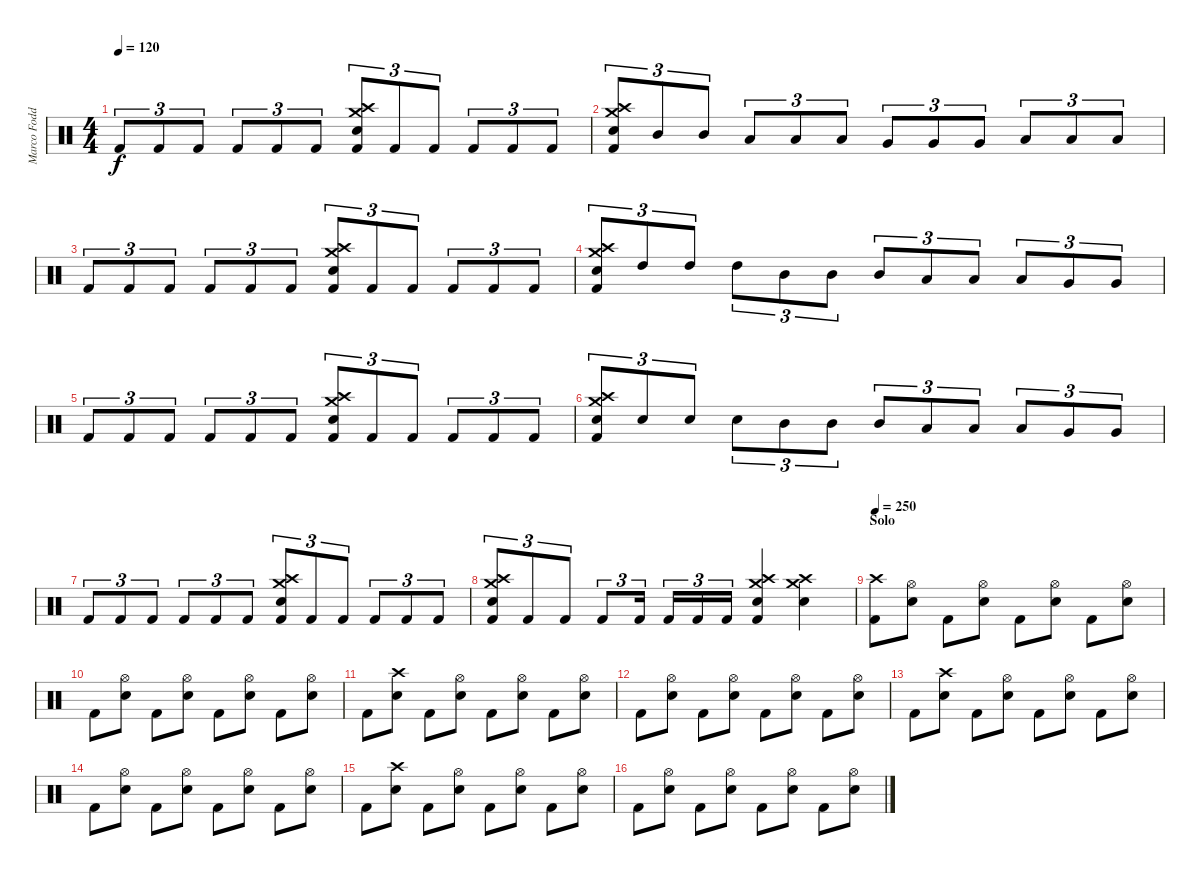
\track ("Marco Foddis " "Marco Fodd") {instrument percussion}
\staff {score}
\articulation defaults
\ts (4 4)
\tempo 120
\clef neutral
\ks c "Kick (hit) 2".8{tu (3 2) dy f} "Kick (hit) 2".8{tu (3 2)} "Kick (hit) 2".8{tu (3 2)} "Kick (hit) 2".8{tu (3 2)} "Kick (hit) 2".8{tu (3 2)} "Kick (hit) 2".8{tu (3 2)}
("Crash high (hit)" "Crash medium (hit)" "Electric Snare (hit)" "Kick (hit) 2").8{tu (3 2)} "Kick (hit) 2".8{tu (3 2)} "Kick (hit) 2".8{tu (3 2)} "Kick (hit) 2".8{tu (3 2)} "Kick (hit) 2".8{tu (3 2)} "Kick (hit) 2".8{tu (3 2)} |
("Crash high (hit)" "Crash medium (hit)" "Electric Snare (hit)" "Kick (hit) 2").8{tu (3 2)} "Mid Tom (hit)".8{tu (3 2)} "Mid Tom (hit)".8{tu (3 2)} "Low Tom (hit)".8{tu (3 2)} "Low Tom (hit)".8{tu (3 2)} "Low Tom (hit)".8{tu (3 2)} "Very Low Tom (hit)".8{tu (3 2)} "Very Low Tom (hit)".8{tu (3 2)} "Very Low Tom (hit)".8{tu (3 2)} "Low Floor Tom (hit)".8{tu (3 2)} "Low Floor Tom (hit)".8{tu (3 2)} "Low Floor Tom (hit)".8{tu (3 2)} |
"Kick (hit) 2".8{tu (3 2)} "Kick (hit) 2".8{tu (3 2)} "Kick (hit) 2".8{tu (3 2)} "Kick (hit) 2".8{tu (3 2)} "Kick (hit) 2".8{tu (3 2)} "Kick (hit) 2".8{tu (3 2)} ("Crash high (hit)" "Crash medium (hit)" "Electric Snare (hit)" "Kick (hit) 2").8{tu (3 2)} "Kick (hit) 2".8{tu (3 2)} "Kick (hit) 2".8{tu (3 2)} "Kick (hit) 2".8{tu (3 2)} "Kick (hit) 2".8{tu (3 2)} "Kick (hit) 2".8{tu (3 2)} |
("Crash high (hit)" "Crash medium (hit)" "Electric Snare (hit)" "Kick (hit) 2").8{tu (3 2)} "High Tom (hit)".8{tu (3 2)} "High Tom (hit)".8{tu (3 2)} "High Tom (hit)".8{tu (3 2)} "Mid Tom (hit)".8{tu (3 2)} "Mid Tom (hit)".8{tu (3 2)} "Mid Tom (hit)".8{tu (3 2)} "Low Tom (hit)".8{tu (3 2)} "Low Tom (hit)".8{tu (3 2)} "Low Tom (hit)".8{tu (3 2)} "Very Low Tom (hit)".8{tu (3 2)} "Very Low Tom (hit)".8{tu (3 2)} |
"Kick (hit) 2".8{tu (3 2)} "Kick (hit) 2".8{tu (3 2)} "Kick (hit) 2".8{tu (3 2)} "Kick (hit) 2".8{tu (3 2)} "Kick (hit) 2".8{tu (3 2)} "Kick (hit) 2".8{tu (3 2)} ("Crash high (hit)" "Crash medium (hit)" "Electric Snare (hit)" "Kick (hit) 2").8{tu (3 2)} "Kick (hit) 2".8{tu (3 2)} "Kick (hit) 2".8{tu (3 2)} "Kick (hit) 2".8{tu (3 2)} "Kick (hit) 2".8{tu (3 2)} "Kick (hit) 2".8{tu (3 2)} |
("Crash high (hit)" "Crash medium (hit)" "Electric Snare (hit)" "Kick (hit) 2").8{tu (3 2)} "Electric Snare (hit)".8{tu (3 2)} "Electric Snare (hit)".8{tu (3 2)} "Electric Snare (hit)".8{tu (3 2)} "Mid Tom (hit)".8{tu (3 2)} "Mid Tom (hit)".8{tu (3 2)} "Mid Tom (hit)".8{tu (3 2)} "Low Tom (hit)".8{tu (3 2)} "Low Tom (hit)".8{tu (3 2)} "Low Tom (hit)".8{tu (3 2)} "Very Low Tom (hit)".8{tu (3 2)} "Very Low Tom (hit)".8{tu (3 2)} |
"Kick (hit) 2".8{tu (3 2)} "Kick (hit) 2".8{tu (3 2)} "Kick (hit) 2".8{tu (3 2)} "Kick (hit) 2".8{tu (3 2)} "Kick (hit) 2".8{tu (3 2)} "Kick (hit) 2".8{tu (3 2)} ("Crash high (hit)" "Crash medium (hit)" "Electric Snare (hit)" "Kick (hit) 2").8{tu (3 2)} "Kick (hit) 2".8{tu (3 2)} "Kick (hit) 2".8{tu (3 2)} "Kick (hit) 2".8{tu (3 2)} "Kick (hit) 2".8{tu (3 2)} "Kick (hit) 2".8{tu (3 2)} |
("Crash high (hit)" "Crash medium (hit)" "Electric Snare (hit)" "Kick (hit) 2").8{tu (3 2)} "Kick (hit) 2".8{tu (3 2)} "Kick (hit) 2".8{tu (3 2)} "Kick (hit) 2".8{tu (3 2)} "Kick (hit) 2".16{tu (3 2)} "Kick (hit) 2".16{tu (3 2)} "Kick (hit) 2".16{tu (3 2)} "Kick (hit) 2".16{tu (3 2)} ("Crash high (hit)" "Crash medium (hit)" "Electric Snare (hit)" "Kick (hit) 2").4 ("Crash high (hit)" "Crash medium (hit)" "Electric Snare (hit)").4 |
\section ("" "Solo")
\tempo 250
("Crash high (hit)" "Kick (hit) 2").8 ("Hi-Hat (open)" "Electric Snare (hit)").8 "Kick (hit) 2".8 ("Hi-Hat (open)" "Electric Snare (hit)").8 "Kick (hit) 2".8 ("Hi-Hat (open)" "Electric Snare (hit)").8 "Kick (hit) 2".8 ("Hi-Hat (open)" "Electric Snare (hit)").8 |
"Kick (hit) 2".8 ("Hi-Hat (open)" "Electric Snare (hit)").8 "Kick (hit) 2".8 ("Hi-Hat (open)" "Electric Snare (hit)").8 "Kick (hit) 2".8 ("Hi-Hat (open)" "Electric Snare (hit)").8 "Kick (hit) 2".8 ("Hi-Hat (open)" "Electric Snare (hit)").8 |
"Kick (hit) 2".8 ("Crash high (hit)" "Electric Snare (hit)").8 "Kick (hit) 2".8 ("Hi-Hat (open)" "Electric Snare (hit)").8 "Kick (hit) 2".8 ("Hi-Hat (open)" "Electric Snare (hit)").8 "Kick (hit) 2".8 ("Hi-Hat (open)" "Electric Snare (hit)").8 |
"Kick (hit) 2".8 ("Hi-Hat (open)" "Electric Snare (hit)").8 "Kick (hit) 2".8 ("Hi-Hat (open)" "Electric Snare (hit)").8 "Kick (hit) 2".8 ("Hi-Hat (open)" "Electric Snare (hit)").8 "Kick (hit) 2".8 ("Hi-Hat (open)" "Electric Snare (hit)").8 |
"Kick (hit) 2".8 ("Crash high (hit)" "Electric Snare (hit)").8 "Kick (hit) 2".8 ("Hi-Hat (open)" "Electric Snare (hit)").8 "Kick (hit) 2".8 ("Hi-Hat (open)" "Electric Snare (hit)").8 "Kick (hit) 2".8 ("Hi-Hat (open)" "Electric Snare (hit)").8 |
"Kick (hit) 2".8 ("Hi-Hat (open)" "Electric Snare (hit)").8 "Kick (hit) 2".8 ("Hi-Hat (open)" "Electric Snare (hit)").8 "Kick (hit) 2".8 ("Hi-Hat (open)" "Electric Snare (hit)").8 "Kick (hit) 2".8 ("Hi-Hat (open)" "Electric Snare (hit)").8 |
"Kick (hit) 2".8 ("Crash high (hit)" "Electric Snare (hit)").8 "Kick (hit) 2".8 ("Hi-Hat (open)" "Electric Snare (hit)").8 "Kick (hit) 2".8 ("Hi-Hat (open)" "Electric Snare (hit)").8 "Kick (hit) 2".8 ("Hi-Hat (open)" "Electric Snare (hit)").8 |
"Kick (hit) 2".8 ("Hi-Hat (open)" "Electric Snare (hit)").8 "Kick (hit) 2".8 ("Hi-Hat (open)" "Electric Snare (hit)").8 "Kick (hit) 2".8 ("Hi-Hat (open)" "Electric Snare (hit)").8 "Kick (hit) 2".8 ("Hi-Hat (open)" "Electric Snare (hit)").8
